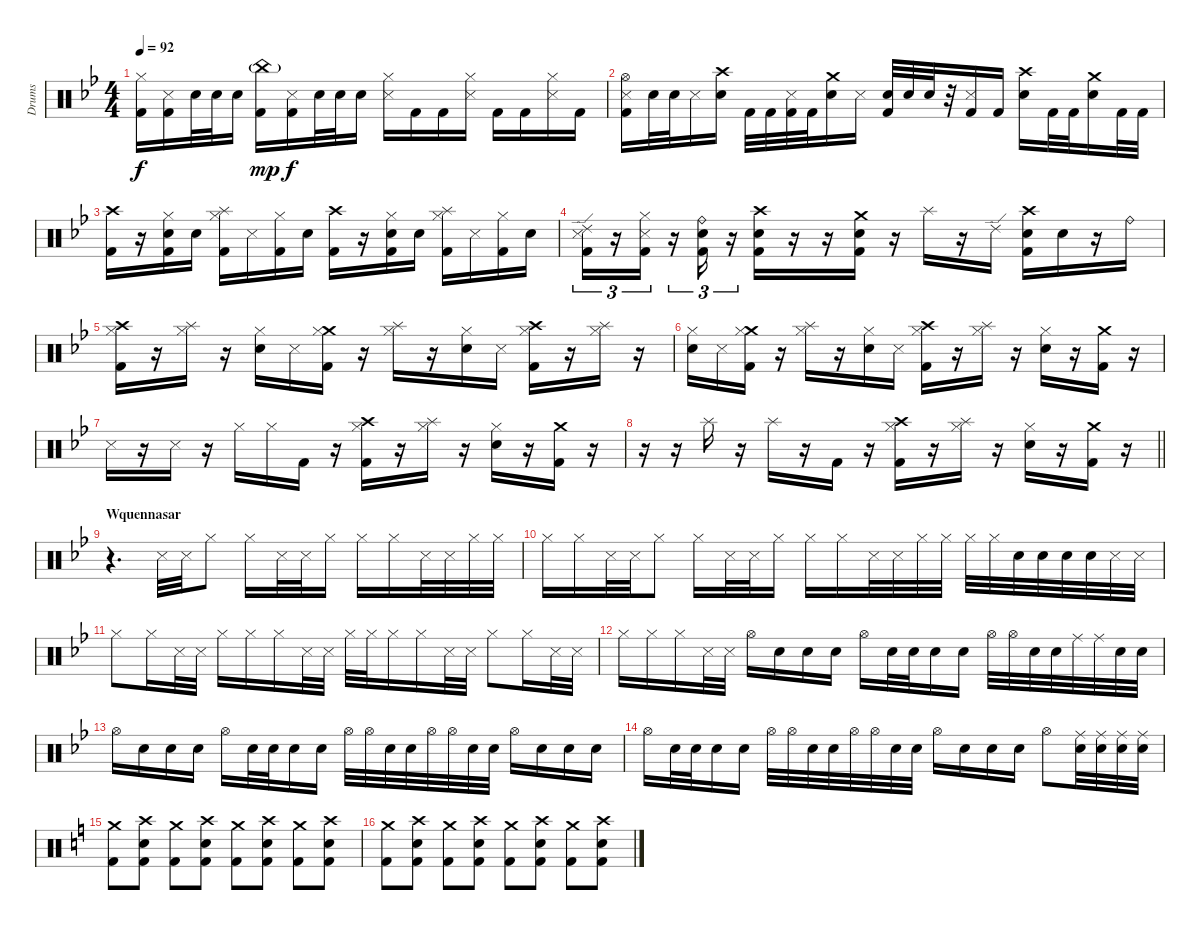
\track ("Drums" "Drums") {instrument percussion}
\staff {score}
\articulation defaults
\ts (4 4)
\tempo 92
\clef neutral
\ks bb
("Hi-Hat (closed)" "Kick (hit) 2").16{dy f} ("Snare (side stick) 3" "Kick (hit) 2").16 "Snare (hit) 2".32 "Snare (hit) 2".32 "Snare (hit) 2".16 ("China (hit)"{g} "Kick (hit) 2").16{dy mp} ("Snare (side stick) 3" "Kick (hit) 2").16{dy f} "Snare (hit) 2".32 "Snare (hit) 2".32 "Snare (hit) 2".16 ("Hi-Hat (closed)" "Snare (side stick) 3").16 "Kick (hit) 2".16 "Kick (hit) 2".16 ("Hi-Hat (closed)" "Snare (side stick) 3").16 "Kick (hit) 2".16 "Kick (hit) 2".16 ("Hi-Hat (closed)" "Snare (side stick) 3").16 "Kick (hit) 2".16 |
("Hi-Hat (open)" "Snare (side stick) 3" "Kick (hit) 2").16 "Snare (hit) 2".32 "Snare (hit) 2".32 "Snare (side stick) 3".16 ("Crash high (hit)" "Snare (hit) 2").16 "Kick (hit) 2".32 "Kick (hit) 2".32 ("Snare (side stick) 3" "Kick (hit) 2").32 "Kick (hit) 2".32 ("Crash medium (hit)" "Snare (hit) 2").16 "Snare (side stick) 3".16 ("Snare (hit) 2" "Kick (hit) 2").32 "Snare (hit) 2".32 "Snare (hit) 2".32 r.32 ("Snare (side stick) 3" "Kick (hit) 2").16 "Kick (hit) 2".16 ("Crash high (hit)" "Snare (hit) 2").16 "Kick (hit) 2".32 "Kick (hit) 2".32 ("Crash medium (hit)" "Snare (hit) 2").16 "Kick (hit) 2".32 "Kick (hit) 2".32 |
("Crash high (hit)" "Kick (hit) 2").16 r.16 ("Hi-Hat (closed)" "Snare (hit) 2" "Kick (hit) 2").16 "Snare (hit) 2".16 ("Hi-Hat (closed)" "Splash (hit)" "Kick (hit) 2").16 "Snare (side stick) 3".16 ("Hi-Hat (closed)" "Kick (hit) 2").16 "Snare (hit) 2".16 ("Crash high (hit)" "Kick (hit) 2").16 r.16 ("Hi-Hat (closed)" "Snare (hit) 2" "Kick (hit) 2").16 "Snare (hit) 2".16 ("Hi-Hat (closed)" "Splash (hit)" "Kick (hit) 2").16 "Snare (side stick) 3".16 ("Hi-Hat (closed)" "Kick (hit) 2").16 "Snare (hit) 2".16 |
("Ride (edge) 2" "Snare (side stick) 3" "Kick (hit) 2").16{tu (3 2)} r.16{tu (3 2)} ("Hi-Hat (closed)" "Snare (side stick) 3" "Kick (hit) 2").16{tu (3 2)} r.16{tu (3 2)} ("Ride (bell)" "Snare (hit) 2" "Kick (hit) 2").16{tu (3 2)} r.16{tu (3 2)} ("Crash high (hit)" "Snare (hit) 2" "Kick (hit) 2").16 r.16 r.16 ("Crash medium (hit)" "Snare (hit) 2" "Kick (hit) 2").16 r.16 "Splash (hit)".16 r.16 "Ride (edge) 2".16 ("Crash high (hit)" "Snare (hit) 2" "Kick (hit) 2").16 "Snare (hit) 2".16 r.16 "Ride (bell)".16 |
("Crash high (hit)" "Hi-Hat (closed)" "Kick (hit) 2").16 r.16 ("Hi-Hat (closed)" "Splash (hit)").16 r.16 ("Hi-Hat (closed)" "Snare (hit) 2").16 "Snare (side stick) 3".16 ("Crash medium (hit)" "Hi-Hat (closed)" "Kick (hit) 2").16 r.16 ("Hi-Hat (closed)" "Splash (hit)").16 r.16 ("Hi-Hat (closed)" "Snare (hit) 2").16 "Snare (side stick) 3".16 ("Crash high (hit)" "Hi-Hat (closed)" "Kick (hit) 2").16 r.16 ("Hi-Hat (closed)" "Splash (hit)").16 r.16 |
("Hi-Hat (closed)" "Snare (hit) 2").16 "Snare (side stick) 3".16 ("Crash medium (hit)" "Hi-Hat (closed)" "Kick (hit) 2").16 r.16 ("Hi-Hat (closed)" "Splash (hit)").16 r.16 ("Hi-Hat (closed)" "Snare (hit) 2").16 "Snare (side stick) 3".16 ("Crash high (hit)" "Hi-Hat (closed)" "Kick (hit) 2").16 r.16 ("Hi-Hat (closed)" "Splash (hit)").16 r.16 ("Hi-Hat (closed)" "Snare (hit) 2").16 r.16 ("Crash medium (hit)" "Kick (hit) 2").16 r.16 |
"Snare (side stick) 3".16 r.16 "Snare (side stick) 3".16 r.16 "Hi-Hat (closed)".16 "Hi-Hat (closed)".16 "Kick (hit) 2".16 r.16 ("Crash high (hit)" "Hi-Hat (closed)" "Kick (hit) 2").16 r.16 ("Hi-Hat (closed)" "Splash (hit)").16 r.16 ("Hi-Hat (closed)" "Snare (hit) 2").16 r.16 ("Crash medium (hit)" "Kick (hit) 2").16 r.16 |
\barLineRight lightlight
r.16 r.16 "Splash (hit)".16 r.16 "Splash (hit)".16 r.16 "Kick (hit) 2".16 r.16 ("Crash high (hit)" "Hi-Hat (closed)" "Kick (hit) 2").16 r.16 ("Hi-Hat (closed)" "Splash (hit)").16 r.16 ("Hi-Hat (closed)" "Snare (hit) 2").16 r.16 ("Crash medium (hit)" "Kick (hit) 2").16 r.16 |
\section ("" "Wquennasar")
r.4{d} "Snare (side stick) 3".32 "Snare (side stick) 3".32 "Hi-Hat (closed)".8 "Hi-Hat (closed)".16 "Snare (side stick) 3".32 "Snare (side stick) 3".32 "Hi-Hat (closed)".16 "Hi-Hat (closed)".16 "Hi-Hat (closed)".16 "Snare (side stick) 3".32 "Snare (side stick) 3".32 "Hi-Hat (closed)".32 "Hi-Hat (closed)".32 |
"Hi-Hat (closed)".16 "Hi-Hat (closed)".16 "Snare (side stick) 3".32 "Snare (side stick) 3".32 "Hi-Hat (closed)".8 "Hi-Hat (closed)".16 "Snare (side stick) 3".32 "Snare (side stick) 3".32 "Hi-Hat (closed)".16 "Hi-Hat (closed)".16 "Hi-Hat (closed)".16 "Snare (side stick) 3".32 "Snare (side stick) 3".32 "Hi-Hat (closed)".32 "Hi-Hat (closed)".32 "Hi-Hat (closed)".32 "Hi-Hat (closed)".32 "Metronome (bell)".32 "Metronome (bell)".32 "Metronome (bell)".32 "Metronome (bell)".32 "Snare (side stick) 3".32 "Snare (side stick) 3".32 |
"Hi-Hat (closed)".8 "Hi-Hat (closed)".16 "Snare (side stick) 3".32 "Snare (side stick) 3".32 "Hi-Hat (closed)".16 "Hi-Hat (closed)".16 "Hi-Hat (closed)".16 "Snare (side stick) 3".32 "Snare (side stick) 3".32 "Hi-Hat (closed)".32 "Hi-Hat (closed)".32 "Hi-Hat (closed)".16 "Hi-Hat (closed)".16 "Snare (side stick) 3".32 "Snare (side stick) 3".32 "Hi-Hat (closed)".8 "Hi-Hat (closed)".16 "Snare (side stick) 3".32 "Snare (side stick) 3".32 |
"Hi-Hat (closed)".16 "Hi-Hat (closed)".16 "Hi-Hat (closed)".16 "Snare (side stick) 3".32 "Snare (side stick) 3".32 "Hi-Hat (open)".16 "Snare (hit) 2".16 "Snare (hit) 2".16 "Snare (hit) 2".16 "Hi-Hat (open)".16 "Snare (hit) 2".32 "Snare (hit) 2".32 "Snare (hit) 2".16 "Snare (hit) 2".16 "Hi-Hat (open)".32 "Hi-Hat (open)".32 "Snare (hit) 2".32 "Snare (hit) 2".32 "Ride (middle)".32 "Ride (middle)".32 "Snare (hit) 2".32 "Snare (hit) 2".32 |
"Hi-Hat (open)".16 "Snare (hit) 2".16 "Snare (hit) 2".16 "Snare (hit) 2".16 "Hi-Hat (open)".16 "Snare (hit) 2".32 "Snare (hit) 2".32 "Snare (hit) 2".16 "Snare (hit) 2".16 "Hi-Hat (open)".32 "Hi-Hat (open)".32 "Snare (hit) 2".32 "Snare (hit) 2".32 "Hi-Hat (open)".32 "Hi-Hat (open)".32 "Snare (hit) 2".32 "Snare (hit) 2".32 "Hi-Hat (open)".16 "Snare (hit) 2".16 "Snare (hit) 2".16 "Snare (hit) 2".16 |
"Hi-Hat (open)".16 "Snare (hit) 2".32 "Snare (hit) 2".32 "Snare (hit) 2".16 "Snare (hit) 2".16 "Hi-Hat (open)".32 "Hi-Hat (open)".32 "Snare (hit) 2".32 "Snare (hit) 2".32 "Hi-Hat (open)".32 "Hi-Hat (open)".32 "Snare (hit) 2".32 "Snare (hit) 2".32 "Hi-Hat (open)".16 "Snare (hit) 2".16 "Snare (hit) 2".16 "Snare (hit) 2".16 "Hi-Hat (open)".8 ("Ride (middle)" "Snare (hit) 2").32 ("Ride (middle)" "Snare (hit) 2").32 ("Ride (middle)" "Snare (hit) 2").32 ("Ride (middle)" "Snare (hit) 2").32 |
\ks c
("Crash medium (hit)" "Kick (hit) 2").8 ("Crash high (hit)" "Snare (hit) 2" "Kick (hit) 2").8 ("Crash medium (hit)" "Kick (hit) 2").8 ("Crash high (hit)" "Snare (hit) 2" "Kick (hit) 2").8 ("Crash medium (hit)" "Kick (hit) 2").8 ("Crash high (hit)" "Snare (hit) 2" "Kick (hit) 2").8 ("Crash medium (hit)" "Kick (hit) 2").8 ("Crash high (hit)" "Snare (hit) 2" "Kick (hit) 2").8 |
("Crash medium (hit)" "Kick (hit) 2").8 ("Crash high (hit)" "Snare (hit) 2" "Kick (hit) 2").8 ("Crash medium (hit)" "Kick (hit) 2").8 ("Crash high (hit)" "Snare (hit) 2" "Kick (hit) 2").8 ("Crash medium (hit)" "Kick (hit) 2").8 ("Crash high (hit)" "Snare (hit) 2" "Kick (hit) 2").8 ("Crash medium (hit)" "Kick (hit) 2").8 ("Crash high (hit)" "Snare (hit) 2" "Kick (hit) 2").8
